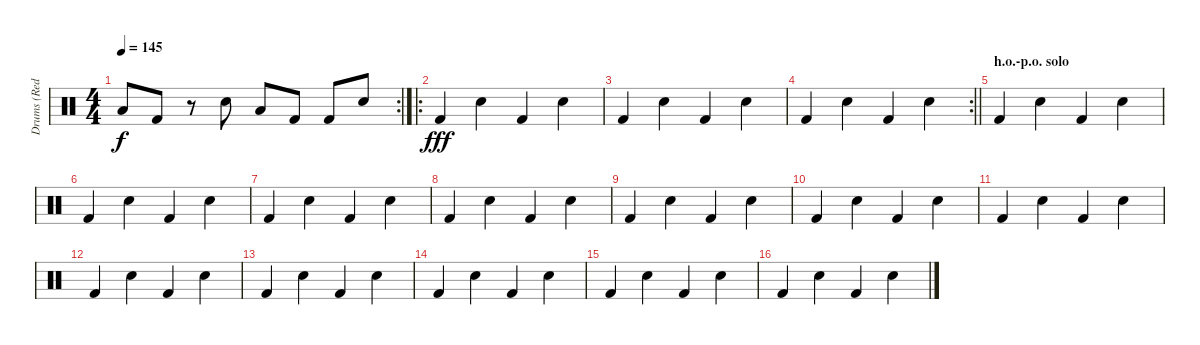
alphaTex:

\track ("Drums (Red)" "Drums (Red") {instrument percussion}
\staff {score}
\articulation defaults
\rc 2
\ts (4 4)
\tempo 145
\clef neutral
\ks c "Low Floor Tom (hit)".8{dy f} "Kick (hit) 2".8
r.8 "Electric Snare (hit)".8 "Low Floor Tom (hit)".8 "Kick (hit) 2".8 "Kick (hit) 2".8 "Electric Snare (hit)".8 |
\ro "Kick (hit) 2".4{dy fff} "Electric Snare (hit)".4 "Kick (hit) 2".4 "Electric Snare (hit)".4
|
"Kick (hit) 2".4 "Electric Snare (hit)".4 "Kick (hit) 2".4 "Electric Snare (hit)".4 |
\rc 2
\barLineRight lightlight "Kick (hit) 2".4 "Electric Snare (hit)".4 "Kick (hit) 2".4 "Electric Snare (hit)".4
|
\section ("" "h.o.-p.o. solo")
"Kick (hit) 2".4 "Electric Snare (hit)".4 "Kick (hit) 2".4 "Electric Snare (hit)".4 |
"Kick (hit) 2".4 "Electric Snare (hit)".4 "Kick (hit) 2".4 "Electric Snare (hit)".4 |
"Kick (hit) 2".4 "Electric Snare (hit)".4 "Kick (hit) 2".4 "Electric Snare (hit)".4 |
"Kick (hit) 2".4 "Electric Snare (hit)".4 "Kick (hit) 2".4 "Electric Snare (hit)".4 |
"Kick (hit) 2".4 "Electric Snare (hit)".4 "Kick (hit) 2".4 "Electric Snare (hit)".4 |
"Kick (hit) 2".4 "Electric Snare (hit)".4 "Kick (hit) 2".4 "Electric Snare (hit)".4 |
"Kick (hit) 2".4 "Electric Snare (hit)".4 "Kick (hit) 2".4 "Electric Snare (hit)".4 |
"Kick (hit) 2".4 "Electric Snare (hit)".4 "Kick (hit) 2".4 "Electric Snare (hit)".4 |
"Kick (hit) 2".4 "Electric Snare (hit)".4 "Kick (hit) 2".4 "Electric Snare (hit)".4 |
"Kick (hit) 2".4 "Electric Snare (hit)".4 "Kick (hit) 2".4 "Electric Snare (hit)".4 |
"Kick (hit) 2".4 "Electric Snare (hit)".4 "Kick (hit) 2".4 "Electric Snare (hit)".4 |
"Kick (hit) 2".4 "Electric Snare (hit)".4 "Kick (hit) 2".4 "Electric Snare (hit)".4
